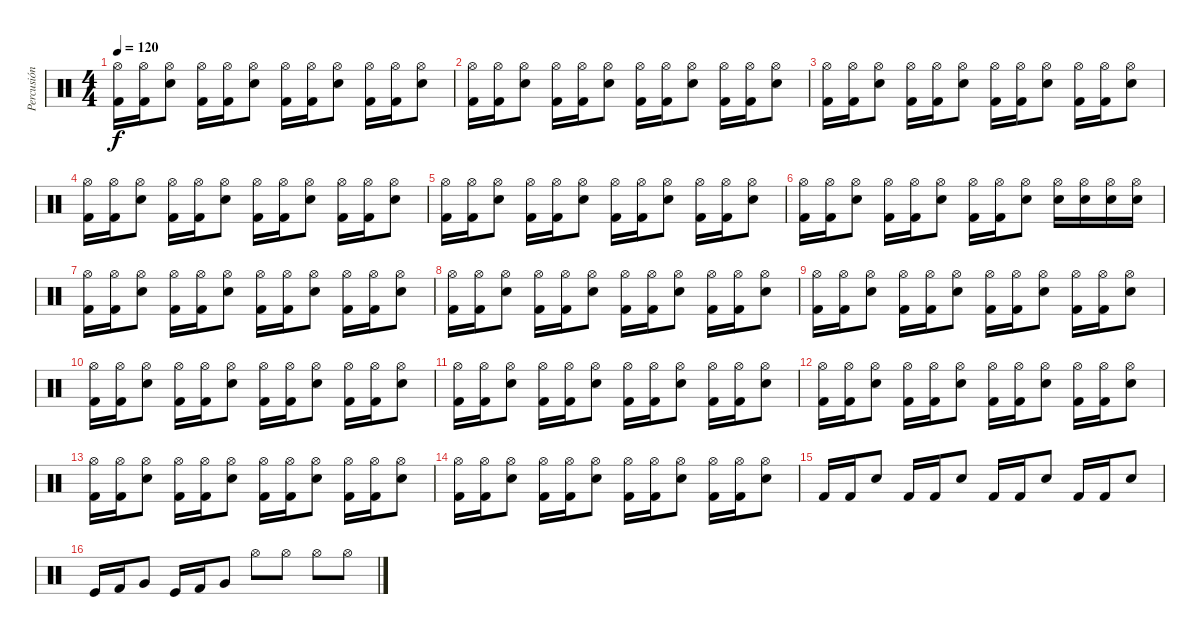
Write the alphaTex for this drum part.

\track ("Percusión" "Percusión") {instrument percussion}
\staff {score}
\articulation defaults
\ts (4 4)
\tempo 120
\clef neutral
\ks c
("Kick (hit) 2" "Hi-Hat (open)").16{dy f} ("Kick (hit) 2" "Hi-Hat (open)").16 ("Snare (hit) 2" "Hi-Hat (open)").8 ("Kick (hit) 2" "Hi-Hat (open)").16 ("Kick (hit) 2" "Hi-Hat (open)").16 ("Snare (hit) 2" "Hi-Hat (open)").8 ("Kick (hit) 2" "Hi-Hat (open)").16 ("Kick (hit) 2" "Hi-Hat (open)").16 ("Snare (hit) 2" "Hi-Hat (open)").8 ("Kick (hit) 2" "Hi-Hat (open)").16 ("Kick (hit) 2" "Hi-Hat (open)").16 ("Snare (hit) 2" "Hi-Hat (open)").8 |
("Kick (hit) 2" "Hi-Hat (open)").16 ("Kick (hit) 2" "Hi-Hat (open)").16 ("Snare (hit) 2" "Hi-Hat (open)").8 ("Kick (hit) 2" "Hi-Hat (open)").16 ("Kick (hit) 2" "Hi-Hat (open)").16 ("Snare (hit) 2" "Hi-Hat (open)").8 ("Kick (hit) 2" "Hi-Hat (open)").16 ("Kick (hit) 2" "Hi-Hat (open)").16 ("Snare (hit) 2" "Hi-Hat (open)").8 ("Kick (hit) 2" "Hi-Hat (open)").16 ("Kick (hit) 2" "Hi-Hat (open)").16 ("Snare (hit) 2" "Hi-Hat (open)").8 |
("Kick (hit) 2" "Hi-Hat (open)").16 ("Kick (hit) 2" "Hi-Hat (open)").16 ("Snare (hit) 2" "Hi-Hat (open)").8 ("Kick (hit) 2" "Hi-Hat (open)").16 ("Kick (hit) 2" "Hi-Hat (open)").16 ("Snare (hit) 2" "Hi-Hat (open)").8 ("Kick (hit) 2" "Hi-Hat (open)").16 ("Kick (hit) 2" "Hi-Hat (open)").16 ("Snare (hit) 2" "Hi-Hat (open)").8 ("Kick (hit) 2" "Hi-Hat (open)").16 ("Kick (hit) 2" "Hi-Hat (open)").16 ("Snare (hit) 2" "Hi-Hat (open)").8 |
("Kick (hit) 2" "Hi-Hat (open)").16 ("Kick (hit) 2" "Hi-Hat (open)").16 ("Snare (hit) 2" "Hi-Hat (open)").8 ("Kick (hit) 2" "Hi-Hat (open)").16 ("Kick (hit) 2" "Hi-Hat (open)").16 ("Snare (hit) 2" "Hi-Hat (open)").8 ("Kick (hit) 2" "Hi-Hat (open)").16 ("Kick (hit) 2" "Hi-Hat (open)").16 ("Snare (hit) 2" "Hi-Hat (open)").8 ("Kick (hit) 2" "Hi-Hat (open)").16 ("Kick (hit) 2" "Hi-Hat (open)").16 ("Snare (hit) 2" "Hi-Hat (open)").8 |
("Kick (hit) 2" "Hi-Hat (open)").16 ("Kick (hit) 2" "Hi-Hat (open)").16 ("Snare (hit) 2" "Hi-Hat (open)").8 ("Kick (hit) 2" "Hi-Hat (open)").16 ("Kick (hit) 2" "Hi-Hat (open)").16 ("Snare (hit) 2" "Hi-Hat (open)").8 ("Kick (hit) 2" "Hi-Hat (open)").16 ("Kick (hit) 2" "Hi-Hat (open)").16 ("Snare (hit) 2" "Hi-Hat (open)").8 ("Kick (hit) 2" "Hi-Hat (open)").16 ("Kick (hit) 2" "Hi-Hat (open)").16 ("Snare (hit) 2" "Hi-Hat (open)").8 |
("Kick (hit) 2" "Hi-Hat (open)").16 ("Kick (hit) 2" "Hi-Hat (open)").16 ("Snare (hit) 2" "Hi-Hat (open)").8 ("Kick (hit) 2" "Hi-Hat (open)").16 ("Kick (hit) 2" "Hi-Hat (open)").16 ("Snare (hit) 2" "Hi-Hat (open)").8 ("Kick (hit) 2" "Hi-Hat (open)").16 ("Kick (hit) 2" "Hi-Hat (open)").16 ("Snare (hit) 2" "Hi-Hat (open)").8 ("Snare (hit) 2" "Hi-Hat (open)").16 ("Electric Snare (hit)" "Hi-Hat (open)").16 ("Snare (hit) 2" "Hi-Hat (open)").16 ("Electric Snare (hit)" "Hi-Hat (open)").16 |
("Kick (hit) 2" "Hi-Hat (open)").16 ("Kick (hit) 2" "Hi-Hat (open)").16 ("Snare (hit) 2" "Hi-Hat (open)").8 ("Kick (hit) 2" "Hi-Hat (open)").16 ("Kick (hit) 2" "Hi-Hat (open)").16 ("Snare (hit) 2" "Hi-Hat (open)").8 ("Kick (hit) 2" "Hi-Hat (open)").16 ("Kick (hit) 2" "Hi-Hat (open)").16 ("Snare (hit) 2" "Hi-Hat (open)").8 ("Kick (hit) 2" "Hi-Hat (open)").16 ("Kick (hit) 2" "Hi-Hat (open)").16 ("Snare (hit) 2" "Hi-Hat (open)").8 |
("Kick (hit) 2" "Hi-Hat (open)").16 ("Kick (hit) 2" "Hi-Hat (open)").16 ("Snare (hit) 2" "Hi-Hat (open)").8 ("Kick (hit) 2" "Hi-Hat (open)").16 ("Kick (hit) 2" "Hi-Hat (open)").16 ("Snare (hit) 2" "Hi-Hat (open)").8 ("Kick (hit) 2" "Hi-Hat (open)").16 ("Kick (hit) 2" "Hi-Hat (open)").16 ("Snare (hit) 2" "Hi-Hat (open)").8 ("Kick (hit) 2" "Hi-Hat (open)").16 ("Kick (hit) 2" "Hi-Hat (open)").16 ("Snare (hit) 2" "Hi-Hat (open)").8 |
("Kick (hit) 2" "Hi-Hat (open)").16 ("Kick (hit) 2" "Hi-Hat (open)").16 ("Snare (hit) 2" "Hi-Hat (open)").8 ("Kick (hit) 2" "Hi-Hat (open)").16 ("Kick (hit) 2" "Hi-Hat (open)").16 ("Snare (hit) 2" "Hi-Hat (open)").8 ("Kick (hit) 2" "Hi-Hat (open)").16 ("Kick (hit) 2" "Hi-Hat (open)").16 ("Snare (hit) 2" "Hi-Hat (open)").8 ("Kick (hit) 2" "Hi-Hat (open)").16 ("Kick (hit) 2" "Hi-Hat (open)").16 ("Snare (hit) 2" "Hi-Hat (open)").8 |
("Kick (hit) 2" "Hi-Hat (open)").16 ("Kick (hit) 2" "Hi-Hat (open)").16 ("Snare (hit) 2" "Hi-Hat (open)").8 ("Kick (hit) 2" "Hi-Hat (open)").16 ("Kick (hit) 2" "Hi-Hat (open)").16 ("Snare (hit) 2" "Hi-Hat (open)").8 ("Kick (hit) 2" "Hi-Hat (open)").16 ("Kick (hit) 2" "Hi-Hat (open)").16 ("Snare (hit) 2" "Hi-Hat (open)").8 ("Kick (hit) 2" "Hi-Hat (open)").16 ("Kick (hit) 2" "Hi-Hat (open)").16 ("Snare (hit) 2" "Hi-Hat (open)").8 |
("Kick (hit) 2" "Hi-Hat (open)").16 ("Kick (hit) 2" "Hi-Hat (open)").16 ("Snare (hit) 2" "Hi-Hat (open)").8 ("Kick (hit) 2" "Hi-Hat (open)").16 ("Kick (hit) 2" "Hi-Hat (open)").16 ("Snare (hit) 2" "Hi-Hat (open)").8 ("Kick (hit) 2" "Hi-Hat (open)").16 ("Kick (hit) 2" "Hi-Hat (open)").16 ("Snare (hit) 2" "Hi-Hat (open)").8 ("Kick (hit) 2" "Hi-Hat (open)").16 ("Kick (hit) 2" "Hi-Hat (open)").16 ("Snare (hit) 2" "Hi-Hat (open)").8 |
("Kick (hit) 2" "Hi-Hat (open)").16 ("Kick (hit) 2" "Hi-Hat (open)").16 ("Snare (hit) 2" "Hi-Hat (open)").8 ("Kick (hit) 2" "Hi-Hat (open)").16 ("Kick (hit) 2" "Hi-Hat (open)").16 ("Snare (hit) 2" "Hi-Hat (open)").8 ("Kick (hit) 2" "Hi-Hat (open)").16 ("Kick (hit) 2" "Hi-Hat (open)").16 ("Snare (hit) 2" "Hi-Hat (open)").8 ("Kick (hit) 2" "Hi-Hat (open)").16 ("Kick (hit) 2" "Hi-Hat (open)").16 ("Snare (hit) 2" "Hi-Hat (open)").8 |
("Kick (hit) 2" "Hi-Hat (open)").16 ("Kick (hit) 2" "Hi-Hat (open)").16 ("Snare (hit) 2" "Hi-Hat (open)").8 ("Kick (hit) 2" "Hi-Hat (open)").16 ("Kick (hit) 2" "Hi-Hat (open)").16 ("Snare (hit) 2" "Hi-Hat (open)").8 ("Kick (hit) 2" "Hi-Hat (open)").16 ("Kick (hit) 2" "Hi-Hat (open)").16 ("Snare (hit) 2" "Hi-Hat (open)").8 ("Kick (hit) 2" "Hi-Hat (open)").16 ("Kick (hit) 2" "Hi-Hat (open)").16 ("Snare (hit) 2" "Hi-Hat (open)").8 |
("Kick (hit) 2" "Hi-Hat (open)").16 ("Kick (hit) 2" "Hi-Hat (open)").16 ("Snare (hit) 2" "Hi-Hat (open)").8 ("Kick (hit) 2" "Hi-Hat (open)").16 ("Kick (hit) 2" "Hi-Hat (open)").16 ("Snare (hit) 2" "Hi-Hat (open)").8 ("Kick (hit) 2" "Hi-Hat (open)").16 ("Kick (hit) 2" "Hi-Hat (open)").16 ("Snare (hit) 2" "Hi-Hat (open)").8 ("Kick (hit) 2" "Hi-Hat (open)").16 ("Kick (hit) 2" "Hi-Hat (open)").16 ("Snare (hit) 2" "Hi-Hat (open)").8 |
"Kick (hit) 2".16 "Kick (hit) 2".16 "Snare (hit) 2".8 "Kick (hit) 2".16 "Kick (hit) 2".16 "Snare (hit) 2".8 "Kick (hit) 2".16 "Kick (hit) 2".16 "Snare (hit) 2".8 "Kick (hit) 2".16 "Kick (hit) 2".16 "Snare (hit) 2".8 |
"Kick (hit)".16 "Kick (hit) 2".16 "Very Low Tom (hit)".8 "Kick (hit)".16 "Kick (hit) 2".16 "Very Low Tom (hit)".8 "Hi-Hat (open)".8 "Hi-Hat (open)".8 "Hi-Hat (open)".8 "Hi-Hat (open)".8
